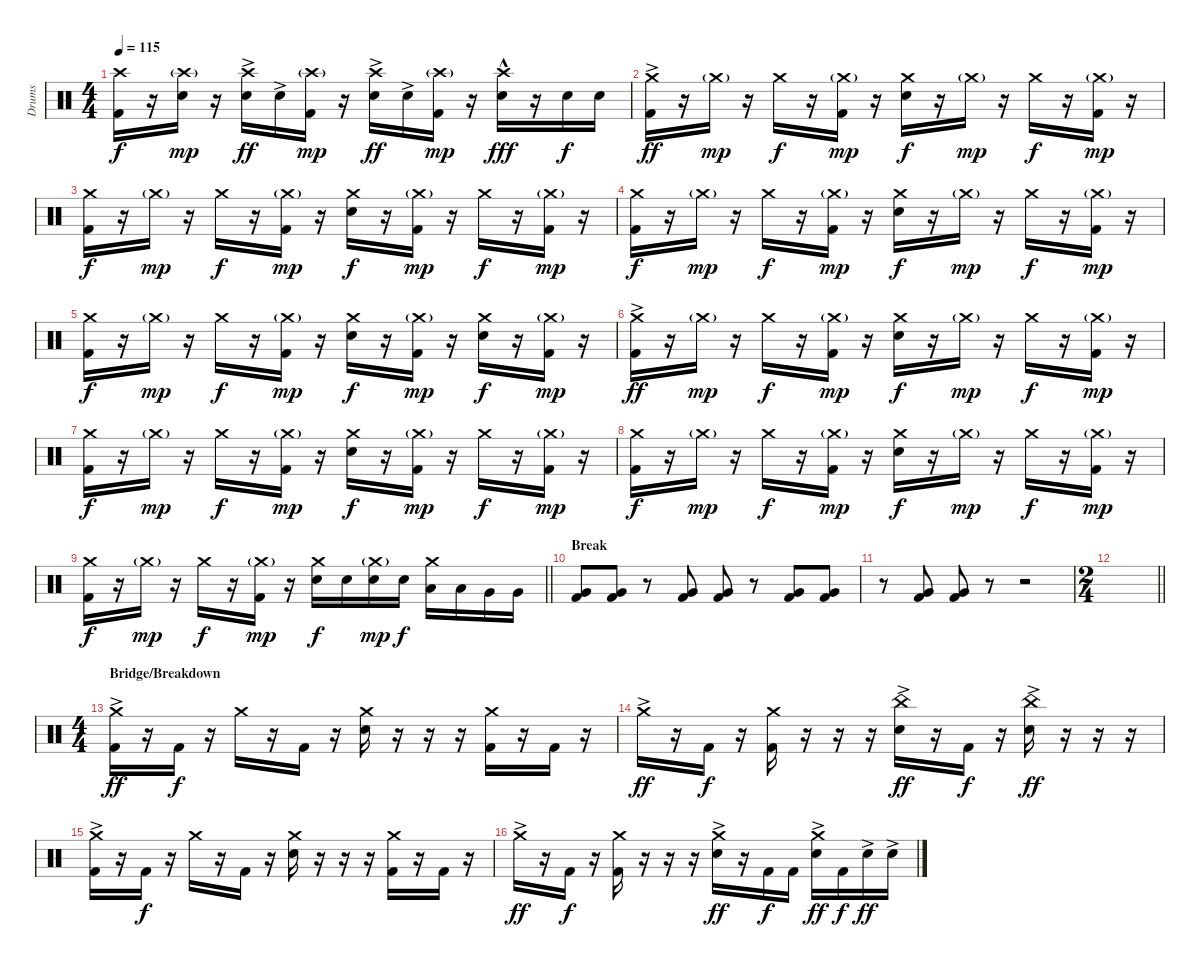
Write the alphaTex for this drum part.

\track ("Drums" "Drums") {instrument percussion}
\staff {score}
\articulation defaults
\ts (4 4)
\tempo 115
\clef neutral
\ks c
("Crash high (hit)" "Kick (hit) 2").16{dy f} r.16 ("Crash high (hit)"{g} "Electric Snare (hit)").16{dy mp} r.16 ("Crash high (hit)"{ac} "Electric Snare (hit)"{ac}).16{dy ff} "Electric Snare (hit)"{ac}.16 ("Crash high (hit)"{g} "Kick (hit) 2").16{dy mp} r.16 ("Crash high (hit)"{ac} "Electric Snare (hit)"{ac}).16{dy ff} "Electric Snare (hit)"{ac}.16 ("Crash high (hit)"{g} "Kick (hit) 2").16{dy mp} r.16 ("Crash high (hit)" "Electric Snare (hit)"{hac}).16{dy fff} r.16 "Electric Snare (hit)".16{dy f} "Electric Snare (hit)".16 |
("Crash medium (hit)"{ac} "Kick (hit) 2").16{dy ff} r.16 "Crash medium (hit)"{g}.16{dy mp} r.16 "Crash medium (hit)".16{dy f} r.16 ("Crash medium (hit)"{g} "Kick (hit) 2").16{dy mp} r.16 ("Crash medium (hit)" "Electric Snare (hit)").16{dy f} r.16 "Crash medium (hit)"{g}.16{dy mp} r.16 "Crash medium (hit)".16{dy f} r.16 ("Crash medium (hit)"{g} "Kick (hit) 2").16{dy mp} r.16 |
("Crash medium (hit)" "Kick (hit) 2").16{dy f} r.16 "Crash medium (hit)"{g}.16{dy mp} r.16 "Crash medium (hit)".16{dy f} r.16 ("Crash medium (hit)"{g} "Kick (hit) 2").16{dy mp} r.16 ("Crash medium (hit)" "Electric Snare (hit)").16{dy f} r.16 ("Crash medium (hit)"{g} "Kick (hit) 2").16{dy mp} r.16 "Crash medium (hit)".16{dy f} r.16 ("Crash medium (hit)"{g} "Kick (hit) 2").16{dy mp} r.16 |
("Crash medium (hit)" "Kick (hit) 2").16{dy f} r.16 "Crash medium (hit)"{g}.16{dy mp} r.16 "Crash medium (hit)".16{dy f} r.16 ("Crash medium (hit)"{g} "Kick (hit) 2").16{dy mp} r.16 ("Crash medium (hit)" "Electric Snare (hit)").16{dy f} r.16 "Crash medium (hit)"{g}.16{dy mp} r.16 "Crash medium (hit)".16{dy f} r.16 ("Crash medium (hit)"{g} "Kick (hit) 2").16{dy mp} r.16 |
("Crash medium (hit)" "Kick (hit) 2").16{dy f} r.16 "Crash medium (hit)"{g}.16{dy mp} r.16 "Crash medium (hit)".16{dy f} r.16 ("Crash medium (hit)"{g} "Kick (hit) 2").16{dy mp} r.16 ("Crash medium (hit)" "Electric Snare (hit)").16{dy f} r.16 ("Crash medium (hit)"{g} "Kick (hit) 2").16{dy mp} r.16 ("Crash medium (hit)" "Electric Snare (hit)").16{dy f} r.16 ("Crash medium (hit)"{g} "Kick (hit) 2").16{dy mp} r.16 |
("Crash medium (hit)"{ac} "Kick (hit) 2").16{dy ff} r.16 "Crash medium (hit)"{g}.16{dy mp} r.16 "Crash medium (hit)".16{dy f} r.16 ("Crash medium (hit)"{g} "Kick (hit) 2").16{dy mp} r.16 ("Crash medium (hit)" "Electric Snare (hit)").16{dy f} r.16 "Crash medium (hit)"{g}.16{dy mp} r.16 "Crash medium (hit)".16{dy f} r.16 ("Crash medium (hit)"{g} "Kick (hit) 2").16{dy mp} r.16 |
("Crash medium (hit)" "Kick (hit) 2").16{dy f} r.16 "Crash medium (hit)"{g}.16{dy mp} r.16 "Crash medium (hit)".16{dy f} r.16 ("Crash medium (hit)"{g} "Kick (hit) 2").16{dy mp} r.16 ("Crash medium (hit)" "Electric Snare (hit)").16{dy f} r.16 ("Crash medium (hit)"{g} "Kick (hit) 2").16{dy mp} r.16 "Crash medium (hit)".16{dy f} r.16 ("Crash medium (hit)"{g} "Kick (hit) 2").16{dy mp} r.16 |
("Crash medium (hit)" "Kick (hit) 2").16{dy f} r.16 "Crash medium (hit)"{g}.16{dy mp} r.16 "Crash medium (hit)".16{dy f} r.16 ("Crash medium (hit)"{g} "Kick (hit) 2").16{dy mp} r.16 ("Crash medium (hit)" "Electric Snare (hit)").16{dy f} r.16 "Crash medium (hit)"{g}.16{dy mp} r.16 "Crash medium (hit)".16{dy f} r.16 ("Crash medium (hit)"{g} "Kick (hit) 2").16{dy mp} r.16 |
\barLineRight lightlight
("Crash medium (hit)" "Kick (hit) 2").16{dy f} r.16 "Crash medium (hit)"{g}.16{dy mp} r.16 "Crash medium (hit)".16{dy f} r.16 ("Crash medium (hit)"{g} "Kick (hit) 2").16{dy mp} r.16 ("Crash medium (hit)" "Electric Snare (hit)").16{dy f} "Electric Snare (hit)".16 ("Crash medium (hit)"{g} "Electric Snare (hit)").16{dy mp} "Electric Snare (hit)".16{dy f} ("Crash medium (hit)" "Low Tom (hit)").16 "Low Tom (hit)".16 "Very Low Tom (hit)".16 "Very Low Tom (hit)".16 |
\section ("" "Break")
("Very Low Tom (hit)" "Kick (hit) 2").8 ("Very Low Tom (hit)" "Kick (hit) 2").8 r.8 ("Very Low Tom (hit)" "Kick (hit) 2").8 ("Very Low Tom (hit)" "Kick (hit) 2").8 r.8 ("Very Low Tom (hit)" "Kick (hit) 2").8 ("Very Low Tom (hit)" "Kick (hit) 2").8 |
r.8 ("Very Low Tom (hit)" "Kick (hit) 2").8 ("Very Low Tom (hit)" "Kick (hit) 2").8 r.8 r.2 |
\ts (2 4)
\barLineRight lightlight
|
\ts (4 4)
\section ("" "Bridge/Breakdown")
("Crash medium (hit)"{ac} "Kick (hit) 2").16{dy ff} r.16 "Kick (hit) 2".16{dy f} r.16 "Crash medium (hit)".16 r.16 "Kick (hit) 2".16 r.16 ("Crash medium (hit)" "Electric Snare (hit)").16 r.16 r.16 r.16 ("Crash medium (hit)" "Kick (hit) 2").16 r.16 "Kick (hit) 2".16 r.16 |
"Crash medium (hit)"{ac}.16{dy ff} r.16 "Kick (hit) 2".16{dy f} r.16 ("Crash medium (hit)" "Kick (hit) 2").16 r.16 r.16 r.16 ("China (hit)" "Electric Snare (hit)"{ac}).16{dy ff} r.16 "Kick (hit) 2".16{dy f} r.16 ("China (hit)"{ac} "Electric Snare (hit)"{ac}).16{dy ff} r.16 r.16 r.16 |
("Crash medium (hit)"{ac} "Kick (hit) 2").16 r.16 "Kick (hit) 2".16{dy f} r.16 "Crash medium (hit)".16 r.16 "Kick (hit) 2".16 r.16 ("Crash medium (hit)" "Electric Snare (hit)").16 r.16 r.16 r.16 ("Crash medium (hit)" "Kick (hit) 2").16 r.16 "Kick (hit) 2".16 r.16 |
"Crash medium (hit)"{ac}.16{dy ff} r.16 "Kick (hit) 2".16{dy f} r.16 ("Crash medium (hit)" "Kick (hit) 2").16 r.16 r.16 r.16 ("Crash medium (hit)" "Electric Snare (hit)"{ac}).16{dy ff} r.16 "Kick (hit) 2".16{dy f} "Kick (hit) 2".16 ("Crash medium (hit)" "Electric Snare (hit)"{ac}).16{dy ff} "Kick (hit) 2".16{dy f} "Electric Snare (hit)"{ac}.16{dy ff} "Electric Snare (hit)"{ac}.16
